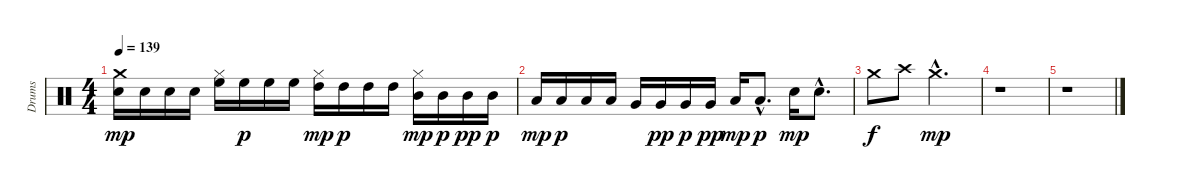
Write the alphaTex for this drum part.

\track ("Drums" "Drums") {instrument percussion}
\staff {score}
\articulation defaults
\ts (4 4)
\tempo 139
\clef neutral
\ks c
("Crash medium (hit)" "Electric Snare (hit)").16{dy mp} "Electric Snare (hit)".16 "Electric Snare (hit)".16 "Electric Snare (hit)".16 ("High Floor Tom (hit)" "Hi-Hat (closed)").16 "High Floor Tom (hit)".16{dy p} "High Floor Tom (hit)".16 "High Floor Tom (hit)".16 ("High Tom (hit)" "Hi-Hat (closed)").16{dy mp} "High Tom (hit)".16{dy p} "High Tom (hit)".16 "High Tom (hit)".16 ("Mid Tom (hit)" "Hi-Hat (closed)").16{dy mp} "Mid Tom (hit)".16{dy p} "Mid Tom (hit)".16{dy pp} "Mid Tom (hit)".16{dy p} |
"Low Tom (hit)".16{dy mp} "Low Tom (hit)".16{dy p} "Low Tom (hit)".16 "Low Tom (hit)".16 "Very Low Tom (hit)".16 "Very Low Tom (hit)".16{dy pp} "Very Low Tom (hit)".16{dy p} "Very Low Tom (hit)".16{dy pp} "Low Floor Tom (hit)".16{dy mp} "Low Floor Tom (hit)"{hac}.8{d dy p} "Snare (hit) 2".16{dy mp} "Snare (hit) 2"{hac}.8{d} |
"Crash medium (hit)".8{dy f} "Crash high (hit)".8 "Crash medium (hit)"{hac}.2{d dy mp} |
r.1 |
r.1
